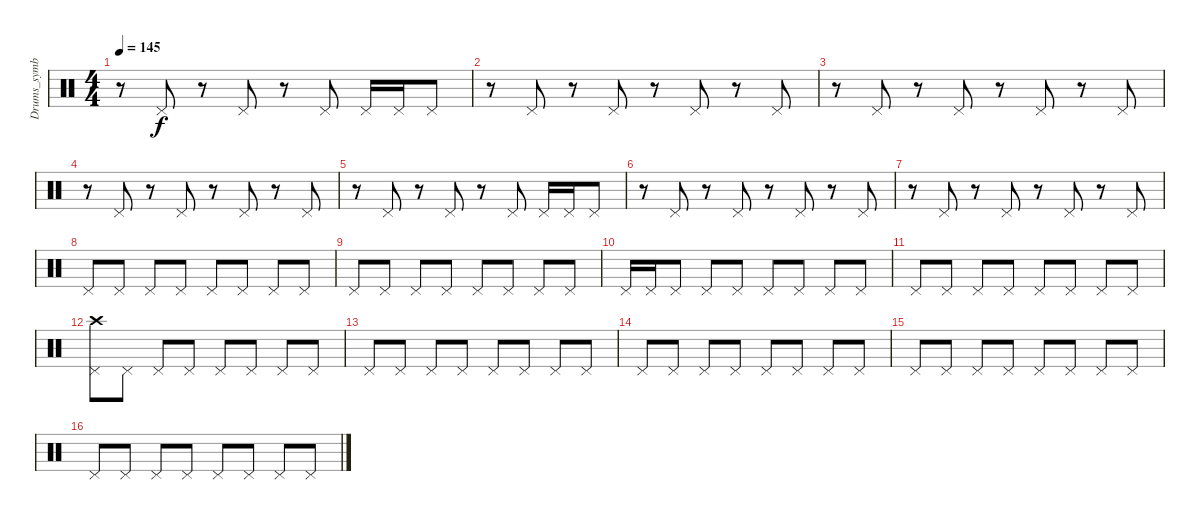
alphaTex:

\track ("Drums_symbal" "Drums_symb") {instrument percussion}
\staff {score}
\articulation defaults
\ts (4 4)
\tempo 145
\clef neutral
\ks c
r.8{dy f} "Pedal Hi-Hat (hit)".8 r.8 "Pedal Hi-Hat (hit)".8 r.8 "Pedal Hi-Hat (hit)".8 "Pedal Hi-Hat (hit)".16 "Pedal Hi-Hat (hit)".16 "Pedal Hi-Hat (hit)".8 |
r.8 "Pedal Hi-Hat (hit)".8 r.8 "Pedal Hi-Hat (hit)".8 r.8 "Pedal Hi-Hat (hit)".8 r.8 "Pedal Hi-Hat (hit)".8 |
r.8 "Pedal Hi-Hat (hit)".8 r.8 "Pedal Hi-Hat (hit)".8 r.8 "Pedal Hi-Hat (hit)".8 r.8 "Pedal Hi-Hat (hit)".8 |
r.8 "Pedal Hi-Hat (hit)".8 r.8 "Pedal Hi-Hat (hit)".8 r.8 "Pedal Hi-Hat (hit)".8 r.8 "Pedal Hi-Hat (hit)".8 |
r.8 "Pedal Hi-Hat (hit)".8 r.8 "Pedal Hi-Hat (hit)".8 r.8 "Pedal Hi-Hat (hit)".8 "Pedal Hi-Hat (hit)".16 "Pedal Hi-Hat (hit)".16 "Pedal Hi-Hat (hit)".8 |
r.8 "Pedal Hi-Hat (hit)".8 r.8 "Pedal Hi-Hat (hit)".8 r.8 "Pedal Hi-Hat (hit)".8 r.8 "Pedal Hi-Hat (hit)".8 |
r.8 "Pedal Hi-Hat (hit)".8 r.8 "Pedal Hi-Hat (hit)".8 r.8 "Pedal Hi-Hat (hit)".8 r.8 "Pedal Hi-Hat (hit)".8 |
"Pedal Hi-Hat (hit)".8 "Pedal Hi-Hat (hit)".8 "Pedal Hi-Hat (hit)".8 "Pedal Hi-Hat (hit)".8 "Pedal Hi-Hat (hit)".8 "Pedal Hi-Hat (hit)".8 "Pedal Hi-Hat (hit)".8 "Pedal Hi-Hat (hit)".8 |
"Pedal Hi-Hat (hit)".8 "Pedal Hi-Hat (hit)".8 "Pedal Hi-Hat (hit)".8 "Pedal Hi-Hat (hit)".8 "Pedal Hi-Hat (hit)".8 "Pedal Hi-Hat (hit)".8 "Pedal Hi-Hat (hit)".8 "Pedal Hi-Hat (hit)".8 |
"Pedal Hi-Hat (hit)".16 "Pedal Hi-Hat (hit)".16 "Pedal Hi-Hat (hit)".8 "Pedal Hi-Hat (hit)".8 "Pedal Hi-Hat (hit)".8 "Pedal Hi-Hat (hit)".8 "Pedal Hi-Hat (hit)".8 "Pedal Hi-Hat (hit)".8 "Pedal Hi-Hat (hit)".8 |
"Pedal Hi-Hat (hit)".8 "Pedal Hi-Hat (hit)".8 "Pedal Hi-Hat (hit)".8 "Pedal Hi-Hat (hit)".8 "Pedal Hi-Hat (hit)".8 "Pedal Hi-Hat (hit)".8 "Pedal Hi-Hat (hit)".8 "Pedal Hi-Hat (hit)".8 |
("Pedal Hi-Hat (hit)" "Crash high (hit)").8 "Pedal Hi-Hat (hit)".8 "Pedal Hi-Hat (hit)".8 "Pedal Hi-Hat (hit)".8 "Pedal Hi-Hat (hit)".8 "Pedal Hi-Hat (hit)".8 "Pedal Hi-Hat (hit)".8 "Pedal Hi-Hat (hit)".8 |
"Pedal Hi-Hat (hit)".8 "Pedal Hi-Hat (hit)".8 "Pedal Hi-Hat (hit)".8 "Pedal Hi-Hat (hit)".8 "Pedal Hi-Hat (hit)".8 "Pedal Hi-Hat (hit)".8 "Pedal Hi-Hat (hit)".8 "Pedal Hi-Hat (hit)".8 |
"Pedal Hi-Hat (hit)".8 "Pedal Hi-Hat (hit)".8 "Pedal Hi-Hat (hit)".8 "Pedal Hi-Hat (hit)".8 "Pedal Hi-Hat (hit)".8 "Pedal Hi-Hat (hit)".8 "Pedal Hi-Hat (hit)".8 "Pedal Hi-Hat (hit)".8 |
"Pedal Hi-Hat (hit)".8 "Pedal Hi-Hat (hit)".8 "Pedal Hi-Hat (hit)".8 "Pedal Hi-Hat (hit)".8 "Pedal Hi-Hat (hit)".8 "Pedal Hi-Hat (hit)".8 "Pedal Hi-Hat (hit)".8 "Pedal Hi-Hat (hit)".8 |
"Pedal Hi-Hat (hit)".8 "Pedal Hi-Hat (hit)".8 "Pedal Hi-Hat (hit)".8 "Pedal Hi-Hat (hit)".8 "Pedal Hi-Hat (hit)".8 "Pedal Hi-Hat (hit)".8 "Pedal Hi-Hat (hit)".8 "Pedal Hi-Hat (hit)".8
